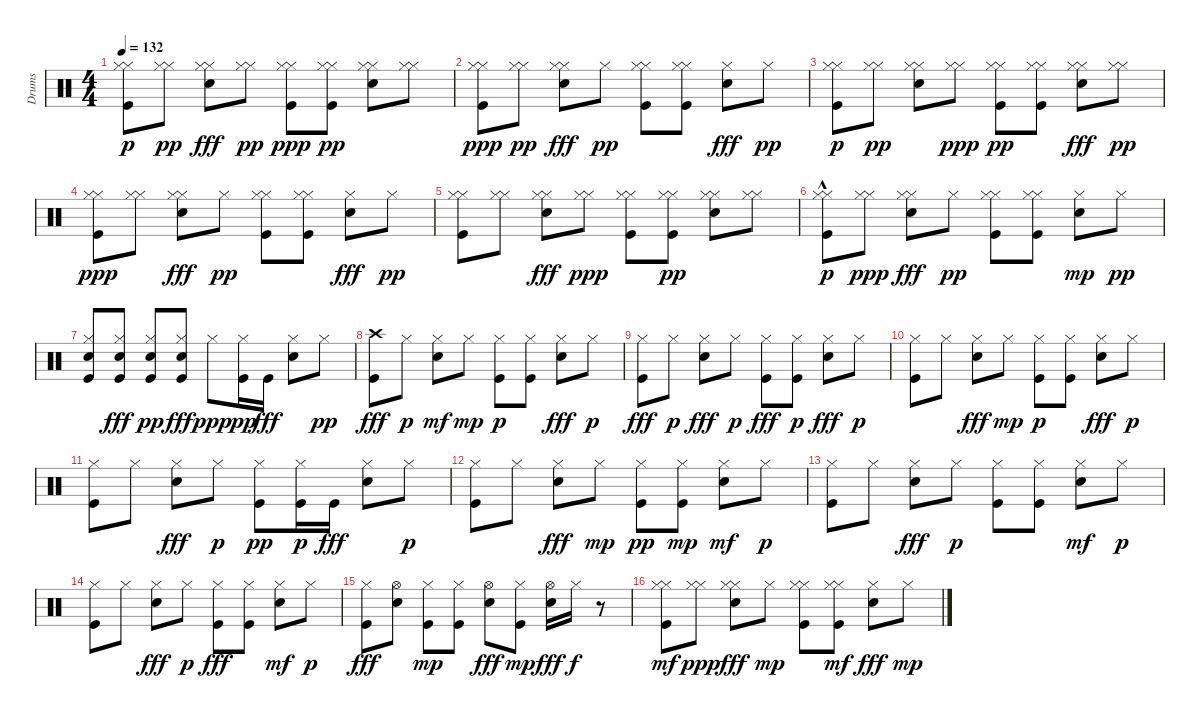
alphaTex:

\track ("Drums" "Drums") {instrument percussion}
\staff {score}
\articulation defaults
\ts (4 4)
\tempo 132
\clef neutral
\ks c
("Kick (hit)" "Hi-Hat (closed)" "Hi-Hat (closed)").8{dy p} ("Hi-Hat (closed)" "Hi-Hat (closed)").8{dy pp} ("Hi-Hat (closed)" "Hi-Hat (closed)" "Snare (hit) 2").8{dy fff} ("Hi-Hat (closed)" "Hi-Hat (closed)").8{dy pp} ("Kick (hit)" "Hi-Hat (closed)" "Hi-Hat (closed)").8{dy ppp} ("Kick (hit)" "Hi-Hat (closed)" "Hi-Hat (closed)").8{dy pp} ("Snare (hit) 2" "Hi-Hat (closed)" "Hi-Hat (closed)").8 ("Hi-Hat (closed)" "Hi-Hat (closed)").8 |
("Hi-Hat (closed)" "Kick (hit)" "Hi-Hat (closed)").8{dy ppp} ("Hi-Hat (closed)" "Hi-Hat (closed)").8{dy pp} ("Hi-Hat (closed)" "Hi-Hat (closed)" "Snare (hit) 2").8{dy fff} "Hi-Hat (closed)".8{dy pp} ("Hi-Hat (closed)" "Kick (hit)" "Hi-Hat (closed)").8 ("Kick (hit)" "Hi-Hat (closed)" "Hi-Hat (closed)").8 ("Hi-Hat (closed)" "Snare (hit) 2").8{dy fff} "Hi-Hat (closed)".8{dy pp} |
("Kick (hit)" "Hi-Hat (closed)" "Hi-Hat (closed)").8{dy p} ("Hi-Hat (closed)" "Hi-Hat (closed)").8{dy pp} ("Hi-Hat (closed)" "Snare (hit) 2" "Hi-Hat (closed)").8 ("Hi-Hat (closed)" "Hi-Hat (closed)").8{dy ppp} ("Kick (hit)" "Hi-Hat (closed)" "Hi-Hat (closed)").8{dy pp} ("Kick (hit)" "Hi-Hat (closed)" "Hi-Hat (closed)").8 ("Hi-Hat (closed)" "Hi-Hat (closed)" "Snare (hit) 2").8{dy fff} ("Hi-Hat (closed)" "Hi-Hat (closed)").8{dy pp} |
("Kick (hit)" "Hi-Hat (closed)" "Hi-Hat (closed)").8{dy ppp} ("Hi-Hat (closed)" "Hi-Hat (closed)").8 ("Hi-Hat (closed)" "Hi-Hat (closed)" "Snare (hit) 2").8{dy fff} "Hi-Hat (closed)".8{dy pp} ("Hi-Hat (closed)" "Kick (hit)" "Hi-Hat (closed)").8 ("Kick (hit)" "Hi-Hat (closed)" "Hi-Hat (closed)").8 ("Hi-Hat (closed)" "Snare (hit) 2").8{dy fff} "Hi-Hat (closed)".8{dy pp} |
("Kick (hit)" "Hi-Hat (closed)" "Hi-Hat (closed)").8 ("Hi-Hat (closed)" "Hi-Hat (closed)").8 ("Hi-Hat (closed)" "Hi-Hat (closed)" "Snare (hit) 2").8{dy fff} ("Hi-Hat (closed)" "Hi-Hat (closed)").8{dy ppp} ("Kick (hit)" "Hi-Hat (closed)" "Hi-Hat (closed)").8 ("Kick (hit)" "Hi-Hat (closed)" "Hi-Hat (closed)").8{dy pp} ("Hi-Hat (closed)" "Snare (hit) 2" "Hi-Hat (closed)").8 ("Hi-Hat (closed)" "Hi-Hat (closed)").8 |
("Hi-Hat (closed)" "Kick (hit)"{hac} "Hi-Hat (closed)").8{dy p} ("Hi-Hat (closed)" "Hi-Hat (closed)").8{dy ppp} ("Hi-Hat (closed)" "Hi-Hat (closed)" "Snare (hit) 2").8{dy fff} "Hi-Hat (closed)".8{dy pp} ("Kick (hit)" "Hi-Hat (closed)" "Hi-Hat (closed)").8 ("Hi-Hat (closed)" "Kick (hit)" "Hi-Hat (closed)").8 ("Snare (hit) 2" "Hi-Hat (closed)").8{dy mp} "Hi-Hat (closed)".8{dy pp} |
("Kick (hit)" "Snare (hit) 2" "Hi-Hat (closed)").8 ("Kick (hit)" "Hi-Hat (closed)" "Snare (hit) 2").8{dy fff} ("Kick (hit)" "Snare (hit) 2" "Hi-Hat (closed)").8{dy pp} ("Kick (hit)" "Hi-Hat (closed)" "Snare (hit) 2").8{dy fff} "Hi-Hat (closed)".8{dy ppp} ("Kick (hit)" "Hi-Hat (closed)").16{dy pp} "Kick (hit)".16{dy fff} ("Hi-Hat (closed)" "Snare (hit) 2").8 "Hi-Hat (closed)".8{dy pp} |
("Kick (hit)" "Crash high (hit)").8{dy fff} "Hi-Hat (closed)".8{dy p} ("Snare (hit) 2" "Hi-Hat (closed)").8{dy mf} "Hi-Hat (closed)".8{dy mp} ("Kick (hit)" "Hi-Hat (closed)").8{dy p} ("Kick (hit)" "Hi-Hat (closed)").8 ("Hi-Hat (closed)" "Snare (hit) 2").8{dy fff} "Hi-Hat (closed)".8{dy p} |
("Hi-Hat (closed)" "Kick (hit)").8{dy fff} "Hi-Hat (closed)".8{dy p} ("Hi-Hat (closed)" "Snare (hit) 2").8{dy fff} "Hi-Hat (closed)".8{dy p} ("Hi-Hat (closed)" "Kick (hit)").8{dy fff} ("Kick (hit)" "Hi-Hat (closed)").8{dy p} ("Hi-Hat (closed)" "Snare (hit) 2").8{dy fff} "Hi-Hat (closed)".8{dy p} |
("Kick (hit)" "Hi-Hat (closed)").8 "Hi-Hat (closed)".8 ("Hi-Hat (closed)" "Snare (hit) 2").8{dy fff} "Hi-Hat (closed)".8{dy mp} ("Kick (hit)" "Hi-Hat (closed)").8{dy p} ("Kick (hit)" "Hi-Hat (closed)").8 ("Hi-Hat (closed)" "Snare (hit) 2").8{dy fff} "Hi-Hat (closed)".8{dy p} |
("Kick (hit)" "Hi-Hat (closed)").8 "Hi-Hat (closed)".8 ("Hi-Hat (closed)" "Snare (hit) 2").8{dy fff} "Hi-Hat (closed)".8{dy p} ("Kick (hit)" "Hi-Hat (closed)").8{dy pp} ("Kick (hit)" "Hi-Hat (closed)").16{dy p} "Kick (hit)".16{dy fff} ("Hi-Hat (closed)" "Snare (hit) 2").8 "Hi-Hat (closed)".8{dy p} |
("Kick (hit)" "Hi-Hat (closed)").8 "Hi-Hat (closed)".8 ("Hi-Hat (closed)" "Snare (hit) 2").8{dy fff} "Hi-Hat (closed)".8{dy mp} ("Kick (hit)" "Hi-Hat (closed)").8{dy pp} ("Kick (hit)" "Hi-Hat (closed)").8{dy mp} ("Snare (hit) 2" "Hi-Hat (closed)").8{dy mf} "Hi-Hat (closed)".8{dy p} |
("Kick (hit)" "Hi-Hat (closed)").8 "Hi-Hat (closed)".8 ("Hi-Hat (closed)" "Snare (hit) 2").8{dy fff} "Hi-Hat (closed)".8{dy p} ("Kick (hit)" "Hi-Hat (closed)").8 ("Kick (hit)" "Hi-Hat (closed)").8 ("Snare (hit) 2" "Hi-Hat (closed)").8{dy mf} "Hi-Hat (closed)".8{dy p} |
("Kick (hit)" "Hi-Hat (closed)").8 "Hi-Hat (closed)".8 ("Hi-Hat (closed)" "Snare (hit) 2").8{dy fff} "Hi-Hat (closed)".8{dy p} ("Hi-Hat (closed)" "Kick (hit)").8{dy fff} ("Hi-Hat (closed)" "Kick (hit)").8 ("Snare (hit) 2" "Hi-Hat (closed)").8{dy mf} "Hi-Hat (closed)".8{dy p} |
("Hi-Hat (closed)" "Kick (hit)").8{dy fff} ("Hi-Hat (open)" "Snare (hit) 2").8 ("Kick (hit)" "Hi-Hat (closed)").8{dy mp} ("Kick (hit)" "Hi-Hat (closed)").8 ("Hi-Hat (open)" "Snare (hit) 2").8{dy fff} ("Kick (hit)" "Hi-Hat (closed)").8{dy mp} ("Hi-Hat (open)" "Snare (hit) 2").16{dy fff} "Hi-Hat (closed)".16{dy f} r.8 |
("Kick (hit)" "Hi-Hat (closed)" "Hi-Hat (closed)").8{dy mf} ("Hi-Hat (closed)" "Hi-Hat (closed)").8{dy ppp} ("Hi-Hat (closed)" "Hi-Hat (closed)" "Snare (hit) 2").8{dy fff} "Hi-Hat (closed)".8{dy mp} ("Kick (hit)" "Hi-Hat (closed)" "Hi-Hat (closed)").8 ("Kick (hit)" "Hi-Hat (closed)" "Hi-Hat (closed)").8{dy mf} ("Hi-Hat (closed)" "Snare (hit) 2").8{dy fff} "Hi-Hat (closed)".8{dy mp}
